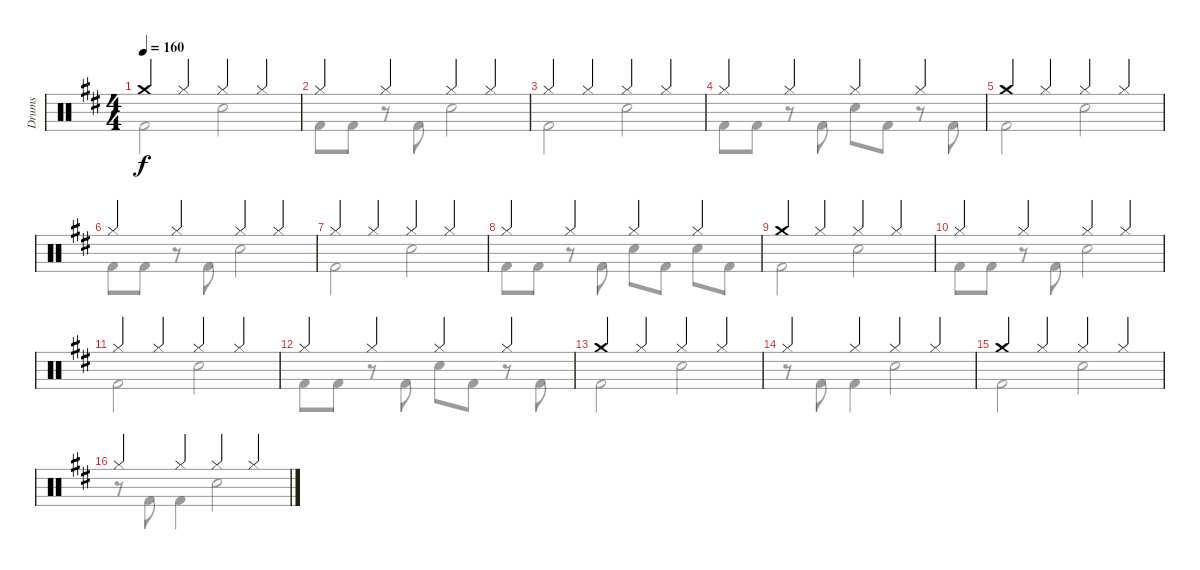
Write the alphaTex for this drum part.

\track ("Drums" "Drums") {instrument percussion}
\staff {score}
\articulation defaults
\voice
\ts (4 4)
\tempo 160
\clef neutral
\ks d "Crash medium (hit)".4{dy f} "Hi-Hat (closed)".4 "Hi-Hat (closed)".4 "Hi-Hat (closed)".4
|
"Hi-Hat (closed)".4 "Hi-Hat (closed)".4 "Hi-Hat (closed)".4 "Hi-Hat (closed)".4 |
"Hi-Hat (closed)".4 "Hi-Hat (closed)".4 "Hi-Hat (closed)".4 "Hi-Hat (closed)".4 |
"Hi-Hat (closed)".4 "Hi-Hat (closed)".4 "Hi-Hat (closed)".4 "Hi-Hat (closed)".4 |
"Crash medium (hit)".4 "Hi-Hat (closed)".4 "Hi-Hat (closed)".4 "Hi-Hat (closed)".4 |
"Hi-Hat (closed)".4 "Hi-Hat (closed)".4 "Hi-Hat (closed)".4 "Hi-Hat (closed)".4 |
"Hi-Hat (closed)".4 "Hi-Hat (closed)".4 "Hi-Hat (closed)".4 "Hi-Hat (closed)".4 |
"Hi-Hat (closed)".4 "Hi-Hat (closed)".4 "Hi-Hat (closed)".4 "Hi-Hat (closed)".4 |
"Crash medium (hit)".4 "Hi-Hat (closed)".4 "Hi-Hat (closed)".4 "Hi-Hat (closed)".4 |
"Hi-Hat (closed)".4 "Hi-Hat (closed)".4 "Hi-Hat (closed)".4 "Hi-Hat (closed)".4 |
"Hi-Hat (closed)".4 "Hi-Hat (closed)".4 "Hi-Hat (closed)".4 "Hi-Hat (closed)".4 |
"Hi-Hat (closed)".4 "Hi-Hat (closed)".4 "Hi-Hat (closed)".4 "Hi-Hat (closed)".4 |
"Crash medium (hit)".4 "Hi-Hat (closed)".4 "Hi-Hat (closed)".4 "Hi-Hat (closed)".4 |
"Hi-Hat (closed)".4 "Hi-Hat (closed)".4 "Hi-Hat (closed)".4 "Hi-Hat (closed)".4 |
"Crash medium (hit)".4 "Hi-Hat (closed)".4 "Hi-Hat (closed)".4 "Hi-Hat (closed)".4 |
"Hi-Hat (closed)".4 "Hi-Hat (closed)".4 "Hi-Hat (closed)".4 "Hi-Hat (closed)".4
\voice
\clef neutral
\ottava regular
\simile none
\ks d "Kick (hit) 2".2{dy f} "Snare (hit) 2".2
|
"Kick (hit) 2".8 "Kick (hit) 2".8 r.8 "Kick (hit) 2".8 "Snare (hit) 2".2 |
"Kick (hit) 2".2 "Snare (hit) 2".2 |
"Kick (hit) 2".8 "Kick (hit) 2".8 r.8 "Kick (hit) 2".8 "Snare (hit) 2".8 "Kick (hit) 2".8 r.8 "Kick (hit) 2".8 |
"Kick (hit) 2".2 "Snare (hit) 2".2 |
"Kick (hit) 2".8 "Kick (hit) 2".8 r.8 "Kick (hit) 2".8 "Snare (hit) 2".2 |
"Kick (hit) 2".2 "Snare (hit) 2".2 |
"Kick (hit) 2".8 "Kick (hit) 2".8 r.8 "Kick (hit) 2".8 "Snare (hit) 2".8 "Kick (hit) 2".8 "Snare (hit) 2".8 "Kick (hit) 2".8 |
"Kick (hit) 2".2 "Snare (hit) 2".2 |
"Kick (hit) 2".8 "Kick (hit) 2".8 r.8 "Kick (hit) 2".8 "Snare (hit) 2".2 |
"Kick (hit) 2".2 "Snare (hit) 2".2 |
"Kick (hit) 2".8 "Kick (hit) 2".8 r.8 "Kick (hit) 2".8 "Snare (hit) 2".8 "Kick (hit) 2".8 r.8 "Kick (hit) 2".8 |
"Kick (hit) 2".2 "Snare (hit) 2".2 |
r.8 "Kick (hit) 2".8 "Kick (hit) 2".4 "Snare (hit) 2".2 |
"Kick (hit) 2".2 "Snare (hit) 2".2 |
r.8 "Kick (hit) 2".8 "Kick (hit) 2".4 "Snare (hit) 2".2
